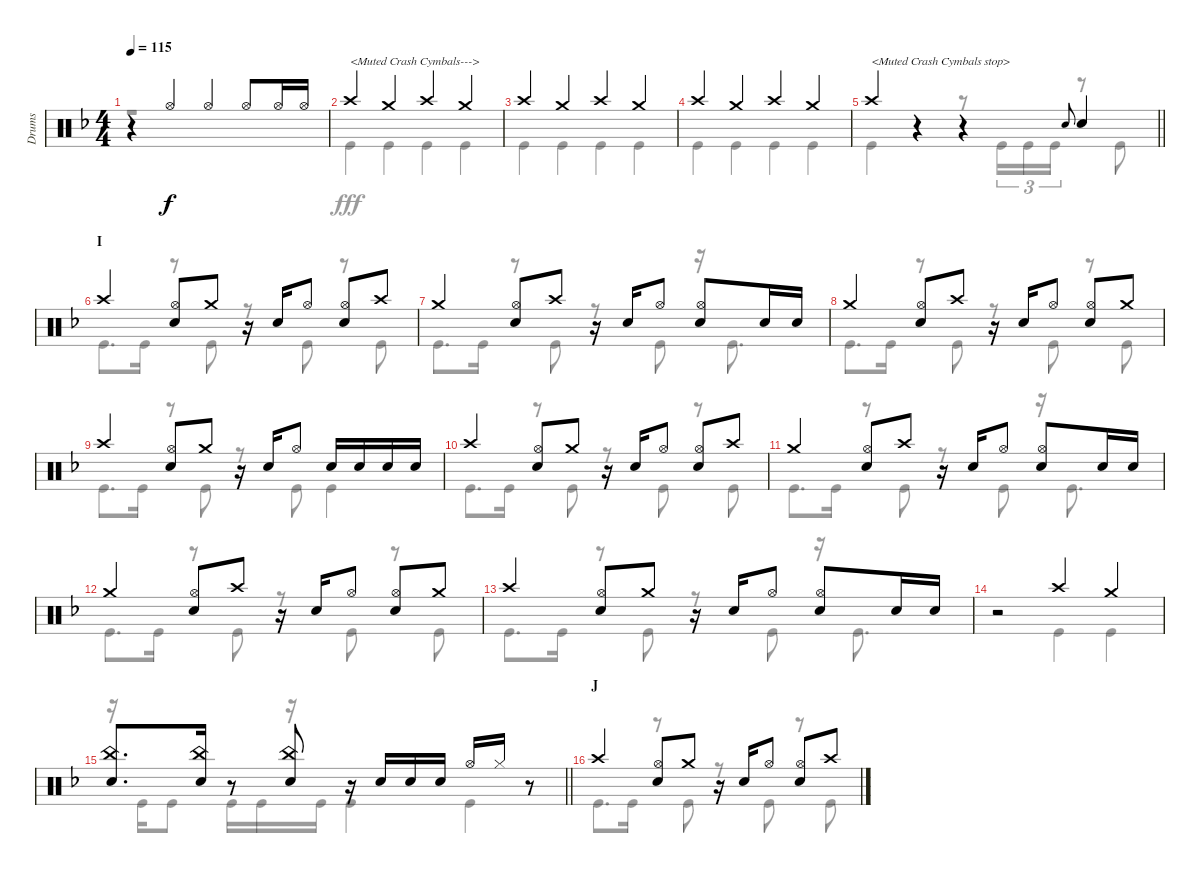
\track ("Drums" "Drums") {instrument percussion}
\staff {score}
\articulation defaults
\voice
\ts (4 4)
\tempo 115
\clef neutral
\ks f
r.4{dy f} "Hi-Hat (open)".4 "Hi-Hat (open)".4 "Hi-Hat (open)".8 "Hi-Hat (open)".16 "Hi-Hat (open)".16 |
"Crash high (hit)".4{txt "<Muted Crash Cymbals--->"} "Crash medium (hit)".4 "Crash high (hit)".4 "Crash medium (hit)".4 |
"Crash high (hit)".4 "Crash medium (hit)".4 "Crash high (hit)".4 "Crash medium (hit)".4 |
"Crash high (hit)".4 "Crash medium (hit)".4 "Crash high (hit)".4 "Crash medium (hit)".4 |
\barLineRight lightlight "Crash high (hit)".4{txt "<Muted Crash Cymbals stop>"}
r.4 r.4 "Snare (hit) 2".8{gr onbeat} "Snare (hit) 2".4 |
\section ("" "I")
"Crash high (hit)".4 ("Hi-Hat (open)" "Snare (hit) 2").8 "Crash medium (hit)".8 r.16 "Snare (hit) 2".16 "Hi-Hat (open)".8 ("Hi-Hat (open)" "Snare (hit) 2").8 "Crash high (hit)".8 |
"Crash medium (hit)".4 ("Hi-Hat (open)" "Snare (hit) 2").8 "Crash high (hit)".8 r.16 "Snare (hit) 2".16 "Hi-Hat (open)".8 ("Hi-Hat (open)" "Snare (hit) 2").8 "Snare (hit) 2".16 "Snare (hit) 2".16 |
"Crash medium (hit)".4 ("Hi-Hat (open)" "Snare (hit) 2").8 "Crash high (hit)".8 r.16 "Snare (hit) 2".16 "Hi-Hat (open)".8 ("Hi-Hat (open)" "Snare (hit) 2").8 "Crash medium (hit)".8 |
"Crash high (hit)".4 ("Hi-Hat (open)" "Snare (hit) 2").8 "Crash medium (hit)".8 r.16 "Snare (hit) 2".16 "Hi-Hat (open)".8 "Snare (hit) 2".16 "Snare (hit) 2".16 "Snare (hit) 2".16 "Snare (hit) 2".16 |
"Crash high (hit)".4 ("Hi-Hat (open)" "Snare (hit) 2").8 "Crash medium (hit)".8 r.16 "Snare (hit) 2".16 "Hi-Hat (open)".8 ("Hi-Hat (open)" "Snare (hit) 2").8 "Crash high (hit)".8 |
"Crash medium (hit)".4 ("Hi-Hat (open)" "Snare (hit) 2").8 "Crash high (hit)".8 r.16 "Snare (hit) 2".16 "Hi-Hat (open)".8 ("Hi-Hat (open)" "Snare (hit) 2").8 "Snare (hit) 2".16 "Snare (hit) 2".16 |
"Crash medium (hit)".4 ("Hi-Hat (open)" "Snare (hit) 2").8 "Crash high (hit)".8 r.16 "Snare (hit) 2".16 "Hi-Hat (open)".8 ("Hi-Hat (open)" "Snare (hit) 2").8 "Crash medium (hit)".8 |
"Crash high (hit)".4 ("Hi-Hat (open)" "Snare (hit) 2").8 "Crash medium (hit)".8 r.16 "Snare (hit) 2".16 "Hi-Hat (open)".8 ("Hi-Hat (open)" "Snare (hit) 2").8 "Snare (hit) 2".16 "Snare (hit) 2".16 |
r.2 "Crash high (hit)".4 "Crash medium (hit)".4 |
\barLineRight lightlight
("China (hit)" "Snare (hit) 2").8{d} ("China (hit)" "Snare (hit) 2").16 r.8 ("China (hit)" "Snare (hit) 2").8 r.16 "Snare (hit) 2".16 "Snare (hit) 2".16 "Snare (hit) 2".16 "Hi-Hat (open)".16 "Hi-Hat (closed)".16 r.8 |
\section ("" "J")
"Crash high (hit)".4 ("Hi-Hat (open)" "Snare (hit) 2").8 "Crash medium (hit)".8 r.16 "Snare (hit) 2".16 "Hi-Hat (open)".8 ("Hi-Hat (open)" "Snare (hit) 2").8 "Crash high (hit)".8
\voice
\clef neutral
\ottava regular
\simile none
\ks f
r.1{dy fff} |
"Kick (hit)".4 "Kick (hit)".4 "Kick (hit)".4 "Kick (hit)".4 |
"Kick (hit)".4 "Kick (hit)".4 "Kick (hit)".4 "Kick (hit)".4 |
"Kick (hit)".4 "Kick (hit)".4 "Kick (hit)".4 "Kick (hit)".4 |
\barLineRight lightlight "Kick (hit)".4
r.4 r.8 "Kick (hit)".16{tu (3 2)} "Kick (hit)".16{tu (3 2)} "Kick (hit)".16{tu (3 2)} r.8 "Kick (hit)".8 |
"Kick (hit)".8{d} "Kick (hit)".16 r.8 "Kick (hit)".8 r.8 "Kick (hit)".8 r.8 "Kick (hit)".8 |
"Kick (hit)".8{d} "Kick (hit)".16 r.8 "Kick (hit)".8 r.8 "Kick (hit)".8 r.16 "Kick (hit)".8{d} |
"Kick (hit)".8{d} "Kick (hit)".16 r.8 "Kick (hit)".8 r.8 "Kick (hit)".8 r.8 "Kick (hit)".8 |
"Kick (hit)".8{d} "Kick (hit)".16 r.8 "Kick (hit)".8 r.8 "Kick (hit)".8 "Kick (hit)".4 |
"Kick (hit)".8{d} "Kick (hit)".16 r.8 "Kick (hit)".8 r.8 "Kick (hit)".8 r.8 "Kick (hit)".8 |
"Kick (hit)".8{d} "Kick (hit)".16 r.8 "Kick (hit)".8 r.8 "Kick (hit)".8 r.16 "Kick (hit)".8{d} |
"Kick (hit)".8{d} "Kick (hit)".16 r.8 "Kick (hit)".8 r.8 "Kick (hit)".8 r.8 "Kick (hit)".8 |
"Kick (hit)".8{d} "Kick (hit)".16 r.8 "Kick (hit)".8 r.8 "Kick (hit)".8 r.16 "Kick (hit)".8{d} |
r.2 "Kick (hit)".4 "Kick (hit)".4 |
\barLineRight lightlight
r.16 "Kick (hit)".16 "Kick (hit)".8 "Kick (hit)".16 "Kick (hit)".16 r.16 "Kick (hit)".16 "Kick (hit)".4 "Kick (hit)".4 |
"Kick (hit)".8{d} "Kick (hit)".16 r.8 "Kick (hit)".8 r.8 "Kick (hit)".8 r.8 "Kick (hit)".8
